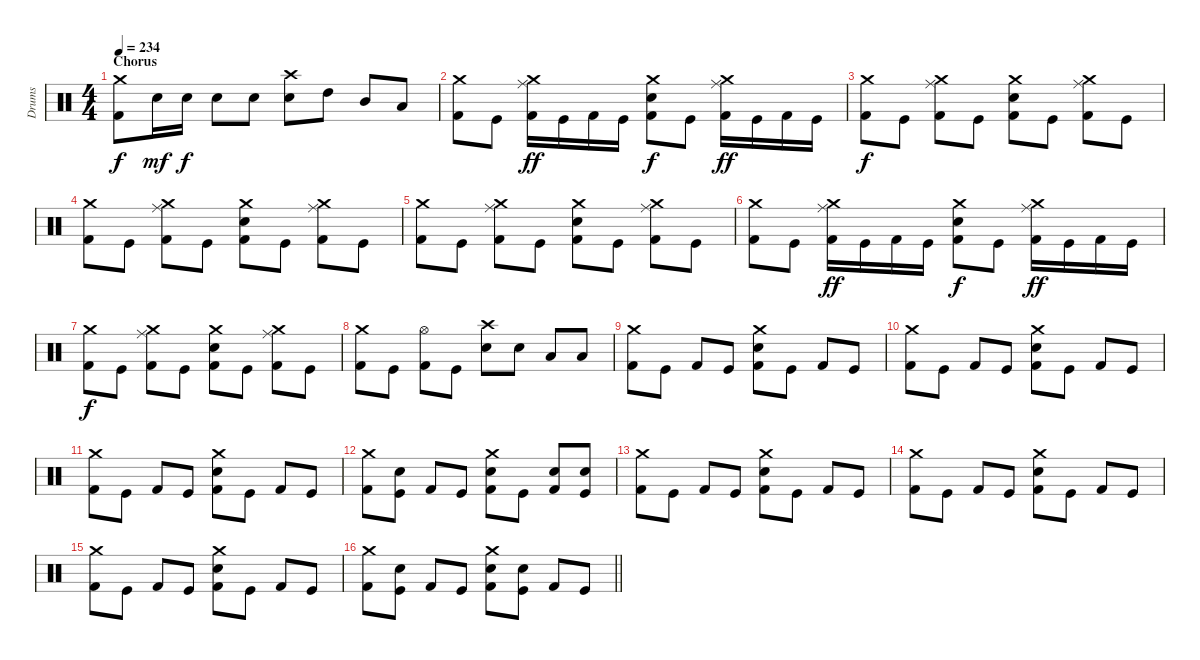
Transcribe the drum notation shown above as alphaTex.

\track ("Drums" "Drums") {instrument percussion}
\staff {score}
\articulation defaults
\ts (4 4)
\section ("" "Chorus")
\tempo 234
\clef neutral
\ks c
("Crash medium (hit)" "Kick (hit) 2").8{dy f} "Snare (hit) 2".16{dy mf} "Snare (hit) 2".16{dy f} "Snare (hit) 2".8 "Snare (hit) 2".8 ("Crash high (hit)" "Snare (hit) 2").8 "High Tom (hit)".8 "Mid Tom (hit)".8 "Low Tom (hit)".8 |
("Crash medium (hit)" "Kick (hit) 2").8 "Kick (hit)".8 ("Crash medium (hit)" "Ride (middle)" "Kick (hit) 2").16{dy ff} "Kick (hit)".16 "Kick (hit) 2".16 "Kick (hit)".16 ("Crash medium (hit)" "Snare (hit) 2" "Kick (hit) 2").8{dy f} "Kick (hit)".8 ("Crash medium (hit)" "Ride (middle)" "Kick (hit) 2").16{dy ff} "Kick (hit)".16 "Kick (hit) 2".16 "Kick (hit)".16 |
("Crash medium (hit)" "Kick (hit) 2").8{dy f} "Kick (hit)".8 ("Crash medium (hit)" "Ride (middle)" "Kick (hit) 2").8 "Kick (hit)".8 ("Crash medium (hit)" "Snare (hit) 2" "Kick (hit) 2").8 "Kick (hit)".8 ("Crash medium (hit)" "Ride (middle)" "Kick (hit) 2").8 "Kick (hit)".8 |
("Crash medium (hit)" "Kick (hit) 2").8 "Kick (hit)".8 ("Crash medium (hit)" "Ride (middle)" "Kick (hit) 2").8 "Kick (hit)".8 ("Crash medium (hit)" "Snare (hit) 2" "Kick (hit) 2").8 "Kick (hit)".8 ("Crash medium (hit)" "Ride (middle)" "Kick (hit) 2").8 "Kick (hit)".8 |
("Crash medium (hit)" "Kick (hit) 2").8 "Kick (hit)".8 ("Crash medium (hit)" "Ride (middle)" "Kick (hit) 2").8 "Kick (hit)".8 ("Crash medium (hit)" "Snare (hit) 2" "Kick (hit) 2").8 "Kick (hit)".8 ("Crash medium (hit)" "Ride (middle)" "Kick (hit) 2").8 "Kick (hit)".8 |
("Crash medium (hit)" "Kick (hit) 2").8 "Kick (hit)".8 ("Crash medium (hit)" "Ride (middle)" "Kick (hit) 2").16{dy ff} "Kick (hit)".16 "Kick (hit) 2".16 "Kick (hit)".16 ("Crash medium (hit)" "Snare (hit) 2" "Kick (hit) 2").8{dy f} "Kick (hit)".8 ("Crash medium (hit)" "Ride (middle)" "Kick (hit) 2").16{dy ff} "Kick (hit)".16 "Kick (hit) 2".16 "Kick (hit)".16 |
("Crash medium (hit)" "Kick (hit) 2").8{dy f} "Kick (hit)".8 ("Crash medium (hit)" "Ride (middle)" "Kick (hit) 2").8 "Kick (hit)".8 ("Crash medium (hit)" "Snare (hit) 2" "Kick (hit) 2").8 "Kick (hit)".8 ("Crash medium (hit)" "Ride (middle)" "Kick (hit) 2").8 "Kick (hit)".8 |
("Crash medium (hit)" "Kick (hit) 2").8 "Kick (hit)".8 ("Hi-Hat (open)" "Kick (hit) 2").8 "Kick (hit)".8 ("Crash high (hit)" "Snare (hit) 2").8 "Snare (hit) 2".8 "Low Tom (hit)".8 "Low Tom (hit)".8 |
("Crash medium (hit)" "Kick (hit) 2").8 "Kick (hit)".8 "Kick (hit) 2".8 "Kick (hit)".8 ("Crash medium (hit)" "Snare (hit) 2" "Kick (hit) 2").8 "Kick (hit)".8 "Kick (hit) 2".8 "Kick (hit)".8 |
("Crash medium (hit)" "Kick (hit) 2").8 "Kick (hit)".8 "Kick (hit) 2".8 "Kick (hit)".8 ("Crash medium (hit)" "Snare (hit) 2" "Kick (hit) 2").8 "Kick (hit)".8 "Kick (hit) 2".8 "Kick (hit)".8 |
("Crash medium (hit)" "Kick (hit) 2").8 "Kick (hit)".8 "Kick (hit) 2".8 "Kick (hit)".8 ("Crash medium (hit)" "Snare (hit) 2" "Kick (hit) 2").8 "Kick (hit)".8 "Kick (hit) 2".8 "Kick (hit)".8 |
("Crash medium (hit)" "Kick (hit) 2").8 ("Snare (hit) 2" "Kick (hit)").8 "Kick (hit) 2".8 "Kick (hit)".8 ("Crash medium (hit)" "Snare (hit) 2" "Kick (hit) 2").8 "Kick (hit)".8 ("Snare (hit) 2" "Kick (hit) 2").8 ("Snare (hit) 2" "Kick (hit)").8 |
("Crash medium (hit)" "Kick (hit) 2").8 "Kick (hit)".8 "Kick (hit) 2".8 "Kick (hit)".8 ("Crash medium (hit)" "Snare (hit) 2" "Kick (hit) 2").8 "Kick (hit)".8 "Kick (hit) 2".8 "Kick (hit)".8 |
("Crash medium (hit)" "Kick (hit) 2").8 "Kick (hit)".8 "Kick (hit) 2".8 "Kick (hit)".8 ("Crash medium (hit)" "Snare (hit) 2" "Kick (hit) 2").8 "Kick (hit)".8 "Kick (hit) 2".8 "Kick (hit)".8 |
("Crash medium (hit)" "Kick (hit) 2").8 "Kick (hit)".8 "Kick (hit) 2".8 "Kick (hit)".8 ("Crash medium (hit)" "Snare (hit) 2" "Kick (hit) 2").8 "Kick (hit)".8 "Kick (hit) 2".8 "Kick (hit)".8 |
\barLineRight lightlight
("Crash medium (hit)" "Kick (hit) 2").8 ("Snare (hit) 2" "Kick (hit)").8 "Kick (hit) 2".8 "Kick (hit)".8 ("Crash medium (hit)" "Snare (hit) 2" "Kick (hit) 2").8 ("Snare (hit) 2" "Kick (hit)").8 "Kick (hit) 2".8 "Kick (hit)".8
